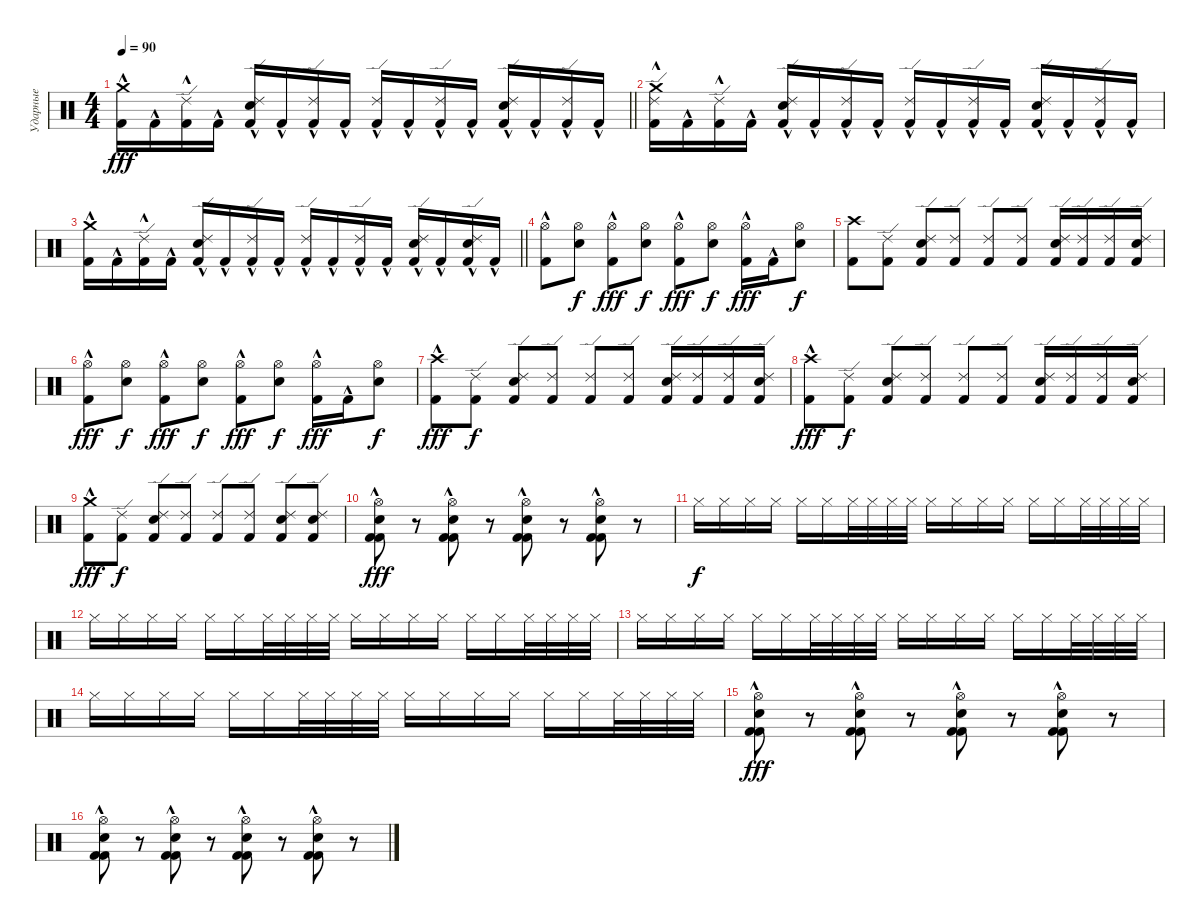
\track ("Ударные" "Ударные") {instrument percussion}
\staff {score}
\articulation defaults
\ts (4 4)
\tempo 90
\clef neutral
\barLineRight lightlight
\ks c
("Crash medium (hit)" "Kick (hit) 2"{hac}).16{dy fff} "Kick (hit) 2"{hac}.16 ("Ride (edge) 2" "Kick (hit) 2"{hac}).16 "Kick (hit) 2"{hac}.16 ("Ride (edge) 2" "Snare (hit) 2" "Kick (hit) 2"{hac}).16 "Kick (hit) 2"{hac}.16 ("Ride (edge) 2" "Kick (hit) 2"{hac}).16 "Kick (hit) 2"{hac}.16 ("Ride (edge) 2" "Kick (hit) 2"{hac}).16 "Kick (hit) 2"{hac}.16 ("Ride (edge) 2" "Kick (hit) 2"{hac}).16 "Kick (hit) 2"{hac}.16 ("Ride (edge) 2" "Snare (hit) 2" "Kick (hit) 2"{hac}).16 "Kick (hit) 2"{hac}.16 ("Ride (edge) 2" "Kick (hit) 2"{hac}).16 "Kick (hit) 2"{hac}.16 |
("Ride (edge) 2" "Crash medium (hit)" "Kick (hit) 2"{hac}).16 "Kick (hit) 2"{hac}.16 ("Ride (edge) 2" "Kick (hit) 2"{hac}).16 "Kick (hit) 2"{hac}.16 ("Ride (edge) 2" "Snare (hit) 2" "Kick (hit) 2"{hac}).16 "Kick (hit) 2"{hac}.16 ("Ride (edge) 2" "Kick (hit) 2"{hac}).16 "Kick (hit) 2"{hac}.16 ("Ride (edge) 2" "Kick (hit) 2"{hac}).16 "Kick (hit) 2"{hac}.16 ("Ride (edge) 2" "Kick (hit) 2"{hac}).16 "Kick (hit) 2"{hac}.16 ("Ride (edge) 2" "Snare (hit) 2" "Kick (hit) 2"{hac}).16 "Kick (hit) 2"{hac}.16 ("Ride (edge) 2" "Kick (hit) 2"{hac}).16 "Kick (hit) 2"{hac}.16 |
\barLineRight lightlight
("Crash medium (hit)" "Kick (hit) 2"{hac}).16 "Kick (hit) 2"{hac}.16 ("Ride (edge) 2" "Kick (hit) 2"{hac}).16 "Kick (hit) 2"{hac}.16 ("Ride (edge) 2" "Snare (hit) 2" "Kick (hit) 2"{hac}).16 "Kick (hit) 2"{hac}.16 ("Ride (edge) 2" "Kick (hit) 2"{hac}).16 "Kick (hit) 2"{hac}.16 ("Ride (edge) 2" "Kick (hit) 2"{hac}).16 "Kick (hit) 2"{hac}.16 ("Ride (edge) 2" "Kick (hit) 2"{hac}).16 "Kick (hit) 2"{hac}.16 ("Ride (edge) 2" "Snare (hit) 2" "Kick (hit) 2"{hac}).16 "Kick (hit) 2"{hac}.16 ("Ride (edge) 2" "Snare (hit) 2" "Kick (hit) 2"{hac}).16 "Kick (hit) 2"{hac}.16 |
("Hi-Hat (open)" "Kick (hit) 2"{hac}).8 ("Hi-Hat (open)" "Snare (hit) 2").8{dy f} ("Hi-Hat (open)" "Kick (hit) 2"{hac}).8{dy fff} ("Hi-Hat (open)" "Snare (hit) 2").8{dy f} ("Hi-Hat (open)" "Kick (hit) 2"{hac}).8{dy fff} ("Hi-Hat (open)" "Snare (hit) 2").8{dy f} ("Hi-Hat (open)" "Kick (hit) 2"{hac}).16{dy fff} "Kick (hit) 2"{hac}.16 ("Hi-Hat (open)" "Snare (hit) 2").8{dy f} |
("Crash high (hit)" "Kick (hit) 2").8 ("Ride (edge) 2" "Kick (hit) 2").8 ("Ride (edge) 2" "Snare (hit) 2" "Kick (hit) 2").8 ("Ride (edge) 2" "Kick (hit) 2").8 ("Ride (edge) 2" "Kick (hit) 2").8 ("Ride (edge) 2" "Kick (hit) 2").8 ("Ride (edge) 2" "Snare (hit) 2" "Kick (hit) 2").16 ("Ride (edge) 2" "Kick (hit) 2").16 ("Ride (edge) 2" "Kick (hit) 2").16 ("Ride (edge) 2" "Snare (hit) 2" "Kick (hit) 2").16 |
("Hi-Hat (open)" "Kick (hit) 2"{hac}).8{dy fff} ("Hi-Hat (open)" "Snare (hit) 2").8{dy f} ("Hi-Hat (open)" "Kick (hit) 2"{hac}).8{dy fff} ("Hi-Hat (open)" "Snare (hit) 2").8{dy f} ("Hi-Hat (open)" "Kick (hit) 2"{hac}).8{dy fff} ("Hi-Hat (open)" "Snare (hit) 2").8{dy f} ("Hi-Hat (open)" "Kick (hit) 2"{hac}).16{dy fff} "Kick (hit) 2"{hac}.16 ("Hi-Hat (open)" "Snare (hit) 2").8{dy f} |
("Crash high (hit)" "Kick (hit) 2"{hac}).8{dy fff} ("Ride (edge) 2" "Kick (hit) 2").8{dy f} ("Ride (edge) 2" "Snare (hit) 2" "Kick (hit) 2").8 ("Ride (edge) 2" "Kick (hit) 2").8 ("Ride (edge) 2" "Kick (hit) 2").8 ("Ride (edge) 2" "Kick (hit) 2").8 ("Ride (edge) 2" "Snare (hit) 2" "Kick (hit) 2").16 ("Ride (edge) 2" "Kick (hit) 2").16 ("Ride (edge) 2" "Kick (hit) 2").16 ("Ride (edge) 2" "Snare (hit) 2" "Kick (hit) 2").16 |
("Crash high (hit)" "Kick (hit) 2"{hac}).8{dy fff} ("Ride (edge) 2" "Kick (hit) 2").8{dy f} ("Ride (edge) 2" "Snare (hit) 2" "Kick (hit) 2").8 ("Ride (edge) 2" "Kick (hit) 2").8 ("Ride (edge) 2" "Kick (hit) 2").8 ("Ride (edge) 2" "Kick (hit) 2").8 ("Ride (edge) 2" "Snare (hit) 2" "Kick (hit) 2").16 ("Ride (edge) 2" "Kick (hit) 2").16 ("Ride (edge) 2" "Kick (hit) 2").16 ("Ride (edge) 2" "Snare (hit) 2" "Kick (hit) 2").16 |
("Crash medium (hit)" "Kick (hit) 2"{hac}).8{dy fff} ("Ride (edge) 2" "Kick (hit) 2").8{dy f} ("Ride (edge) 2" "Snare (hit) 2" "Kick (hit) 2").8 ("Ride (edge) 2" "Kick (hit) 2").8 ("Ride (edge) 2" "Kick (hit) 2").8 ("Ride (edge) 2" "Kick (hit) 2").8 ("Ride (edge) 2" "Snare (hit) 2" "Kick (hit) 2").8 ("Ride (edge) 2" "Snare (hit) 2" "Kick (hit) 2").8 |
("Hi-Hat (open)" "Kick (hit) 2"{hac} "Kick (hit) 2" "Snare (hit) 2").8{dy fff} r.8 ("Hi-Hat (open)" "Kick (hit) 2"{hac} "Kick (hit) 2" "Snare (hit) 2").8 r.8 ("Hi-Hat (open)" "Kick (hit) 2"{hac} "Kick (hit) 2" "Snare (hit) 2").8 r.8 ("Hi-Hat (open)" "Kick (hit) 2"{hac} "Kick (hit) 2" "Snare (hit) 2").8 r.8 |
"Hi-Hat (closed)".16{dy f} "Hi-Hat (closed)".16 "Hi-Hat (closed)".16 "Hi-Hat (closed)".16 "Hi-Hat (closed)".16 "Hi-Hat (closed)".16 "Hi-Hat (closed)".32 "Hi-Hat (closed)".32 "Hi-Hat (closed)".32 "Hi-Hat (closed)".32 "Hi-Hat (closed)".16 "Hi-Hat (closed)".16 "Hi-Hat (closed)".16 "Hi-Hat (closed)".16 "Hi-Hat (closed)".16 "Hi-Hat (closed)".16 "Hi-Hat (closed)".32 "Hi-Hat (closed)".32 "Hi-Hat (closed)".32 "Hi-Hat (closed)".32 |
"Hi-Hat (closed)".16 "Hi-Hat (closed)".16 "Hi-Hat (closed)".16 "Hi-Hat (closed)".16 "Hi-Hat (closed)".16 "Hi-Hat (closed)".16 "Hi-Hat (closed)".32 "Hi-Hat (closed)".32 "Hi-Hat (closed)".32 "Hi-Hat (closed)".32 "Hi-Hat (closed)".16 "Hi-Hat (closed)".16 "Hi-Hat (closed)".16 "Hi-Hat (closed)".16 "Hi-Hat (closed)".16 "Hi-Hat (closed)".16 "Hi-Hat (closed)".32 "Hi-Hat (closed)".32 "Hi-Hat (closed)".32 "Hi-Hat (closed)".32 |
"Hi-Hat (closed)".16 "Hi-Hat (closed)".16 "Hi-Hat (closed)".16 "Hi-Hat (closed)".16 "Hi-Hat (closed)".16 "Hi-Hat (closed)".16 "Hi-Hat (closed)".32 "Hi-Hat (closed)".32 "Hi-Hat (closed)".32 "Hi-Hat (closed)".32 "Hi-Hat (closed)".16 "Hi-Hat (closed)".16 "Hi-Hat (closed)".16 "Hi-Hat (closed)".16 "Hi-Hat (closed)".16 "Hi-Hat (closed)".16 "Hi-Hat (closed)".32 "Hi-Hat (closed)".32 "Hi-Hat (closed)".32 "Hi-Hat (closed)".32 |
"Hi-Hat (closed)".16 "Hi-Hat (closed)".16 "Hi-Hat (closed)".16 "Hi-Hat (closed)".16 "Hi-Hat (closed)".16 "Hi-Hat (closed)".16 "Hi-Hat (closed)".32 "Hi-Hat (closed)".32 "Hi-Hat (closed)".32 "Hi-Hat (closed)".32 "Hi-Hat (closed)".16 "Hi-Hat (closed)".16 "Hi-Hat (closed)".16 "Hi-Hat (closed)".16 "Hi-Hat (closed)".16 "Hi-Hat (closed)".16 "Hi-Hat (closed)".32 "Hi-Hat (closed)".32 "Hi-Hat (closed)".32 "Hi-Hat (closed)".32 |
("Hi-Hat (open)" "Kick (hit) 2"{hac} "Kick (hit) 2" "Snare (hit) 2").8{dy fff} r.8 ("Hi-Hat (open)" "Kick (hit) 2"{hac} "Kick (hit) 2" "Snare (hit) 2").8 r.8 ("Hi-Hat (open)" "Kick (hit) 2"{hac} "Kick (hit) 2" "Snare (hit) 2").8 r.8 ("Hi-Hat (open)" "Kick (hit) 2"{hac} "Kick (hit) 2" "Snare (hit) 2").8 r.8 |
("Hi-Hat (open)" "Kick (hit) 2"{hac} "Kick (hit) 2" "Snare (hit) 2").8 r.8 ("Hi-Hat (open)" "Kick (hit) 2"{hac} "Kick (hit) 2" "Snare (hit) 2").8 r.8 ("Hi-Hat (open)" "Kick (hit) 2"{hac} "Kick (hit) 2" "Snare (hit) 2").8 r.8 ("Hi-Hat (open)" "Kick (hit) 2"{hac} "Kick (hit) 2" "Snare (hit) 2").8 r.8
